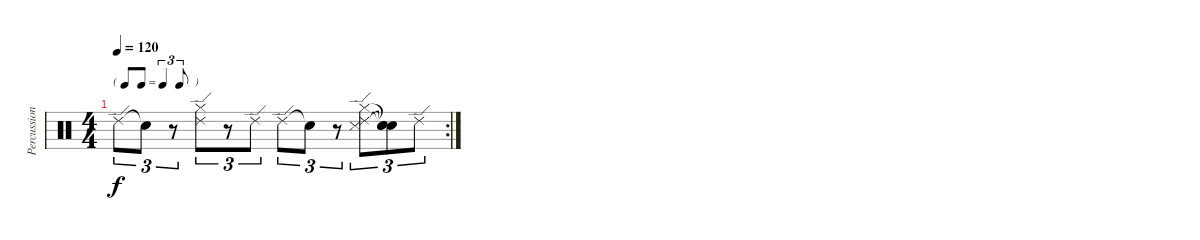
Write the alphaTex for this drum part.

\track ("Percussions" "Percussion") {instrument percussion}
\staff {score}
\articulation defaults
\rc 2
\ts (4 4)
\tf triplet8th
\tempo 120
\clef neutral
\ks c "Ride (edge) 2".8{tu (3 2) dy f} "Snare (hit)"{t}.8{tu (3 2)}
r.8{tu (3 2)} ("Ride (edge) 2" "Hi-Hat (closed)").8{tu (3 2)} r.8{tu (3 2)} "Ride (edge) 2".8{tu (3 2)} "Ride (edge) 2".8{tu (3 2)} "Snare (hit)"{t}.8{tu (3 2)} r.8{tu (3 2)} ("Ride (edge) 2" "Snare (side stick) 3" "Hi-Hat (closed)").8{tu (3 2)} ("Snare (hit)"{t} "Snare (hit)"{t} "Snare (hit)"{t}).8{tu (3 2)} "Ride (edge) 2".8{tu (3 2)}
